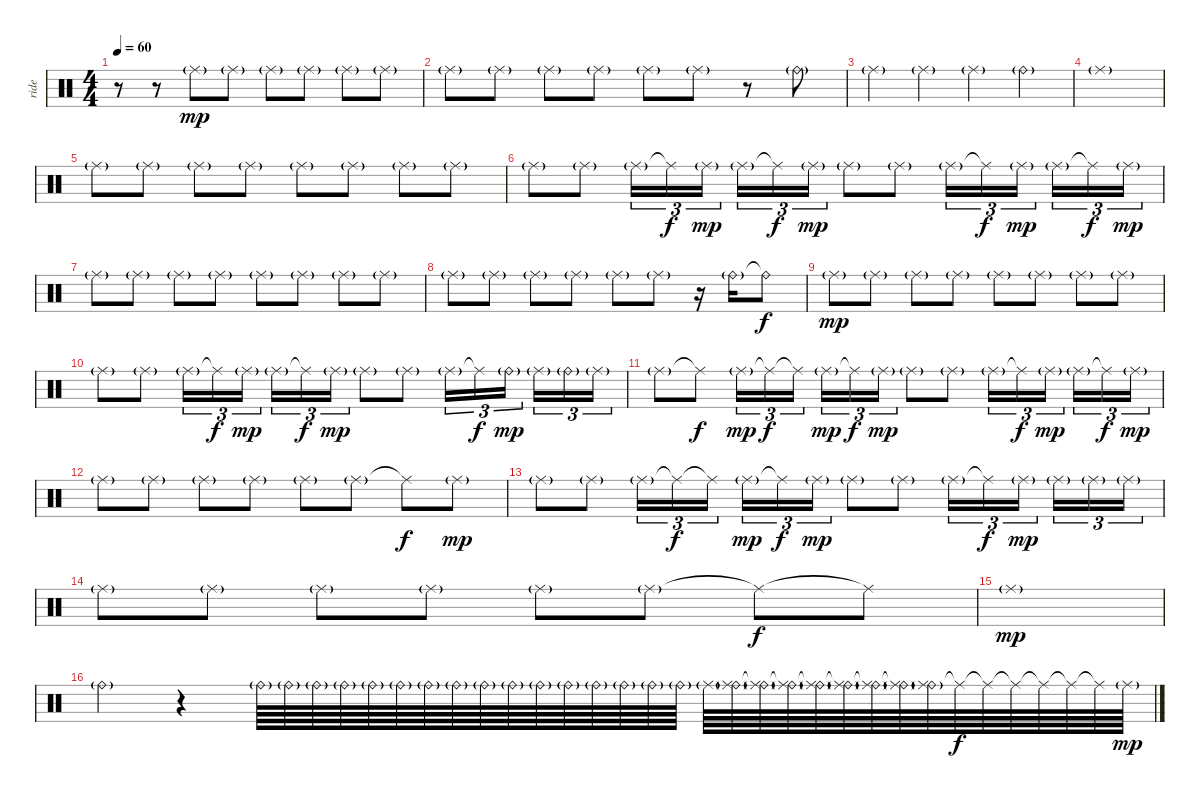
\track ("ride" "ride") {instrument percussion}
\staff {score}
\articulation defaults
\ts (4 4)
\tempo 60
\clef neutral
\ks c
r.8{dy f} r.8 "Ride (middle)"{g}.8{dy mp} "Ride (middle)"{g}.8 "Ride (middle)"{g}.8 "Ride (middle)"{g}.8 "Ride (middle)"{g}.8 "Ride (middle)"{g}.8 |
"Ride (middle)"{g}.8 "Ride (middle)"{g}.8 "Ride (middle)"{g}.8 "Ride (middle)"{g}.8 "Ride (middle)"{g}.8 "Ride (middle)"{g}.8 r.8 "Ride (bell)"{g}.8 |
"Ride (middle)"{g}.4 "Ride (middle)"{g}.4 "Ride (middle)"{g}.4 "Ride (bell)"{g}.4 |
"Ride (middle)"{g}.1 |
"Ride (middle)"{g}.8 "Ride (middle)"{g}.8 "Ride (middle)"{g}.8 "Ride (middle)"{g}.8 "Ride (middle)"{g}.8 "Ride (middle)"{g}.8 "Ride (middle)"{g}.8 "Ride (middle)"{g}.8 |
"Ride (middle)"{g}.8 "Ride (middle)"{g}.8 "Ride (middle)"{g}.16{tu (3 2)} "Ride (middle)"{t}.16{tu (3 2) dy f} "Ride (middle)"{g}.16{tu (3 2) dy mp} "Ride (middle)"{g}.16{tu (3 2)} "Ride (middle)"{t}.16{tu (3 2) dy f} "Ride (middle)"{g}.16{tu (3 2) dy mp} "Ride (middle)"{g}.8 "Ride (middle)"{g}.8 "Ride (middle)"{g}.16{tu (3 2)} "Ride (middle)"{t}.16{tu (3 2) dy f} "Ride (middle)"{g}.16{tu (3 2) dy mp} "Ride (middle)"{g}.16{tu (3 2)} "Ride (middle)"{t}.16{tu (3 2) dy f} "Ride (middle)"{g}.16{tu (3 2) dy mp} |
"Ride (middle)"{g}.8 "Ride (middle)"{g}.8 "Ride (middle)"{g}.8 "Ride (middle)"{g}.8 "Ride (middle)"{g}.8 "Ride (middle)"{g}.8 "Ride (middle)"{g}.8 "Ride (middle)"{g}.8 |
"Ride (middle)"{g}.8 "Ride (middle)"{g}.8 "Ride (middle)"{g}.8 "Ride (middle)"{g}.8 "Ride (middle)"{g}.8 "Ride (middle)"{g}.8 r.16 "Ride (bell)"{g}.16 "Ride (bell)"{t}.8{dy f} |
"Ride (middle)"{g}.8{dy mp} "Ride (middle)"{g}.8 "Ride (middle)"{g}.8 "Ride (middle)"{g}.8 "Ride (middle)"{g}.8 "Ride (middle)"{g}.8 "Ride (middle)"{g}.8 "Ride (middle)"{g}.8 |
"Ride (middle)"{g}.8 "Ride (middle)"{g}.8 "Ride (middle)"{g}.16{tu (3 2)} "Ride (middle)"{t}.16{tu (3 2) dy f} "Ride (middle)"{g}.16{tu (3 2) dy mp} "Ride (middle)"{g}.16{tu (3 2)} "Ride (middle)"{t}.16{tu (3 2) dy f} "Ride (middle)"{g}.16{tu (3 2) dy mp} "Ride (middle)"{g}.8 "Ride (middle)"{g}.8 "Ride (middle)"{g}.16{tu (3 2)} "Ride (middle)"{t}.16{tu (3 2) dy f} "Ride (bell)"{g}.16{tu (3 2) dy mp} "Ride (middle)"{g}.16{tu (3 2)} "Ride (bell)"{g}.16{tu (3 2)} "Ride (middle)"{g}.16{tu (3 2)} |
"Ride (middle)"{g}.8 "Ride (middle)"{t}.8{dy f} "Ride (middle)"{g}.16{tu (3 2) dy mp} "Ride (middle)"{t}.16{tu (3 2) dy f} "Ride (middle)"{t}.16{tu (3 2)} "Ride (middle)"{g}.16{tu (3 2) dy mp} "Ride (middle)"{t}.16{tu (3 2) dy f} "Ride (middle)"{g}.16{tu (3 2) dy mp} "Ride (middle)"{g}.8 "Ride (middle)"{g}.8 "Ride (middle)"{g}.16{tu (3 2)} "Ride (middle)"{t}.16{tu (3 2) dy f} "Ride (middle)"{g}.16{tu (3 2) dy mp} "Ride (middle)"{g}.16{tu (3 2)} "Ride (middle)"{t}.16{tu (3 2) dy f} "Ride (middle)"{g}.16{tu (3 2) dy mp} |
"Ride (middle)"{g}.8 "Ride (middle)"{g}.8 "Ride (middle)"{g}.8 "Ride (middle)"{g}.8 "Ride (middle)"{g}.8 "Ride (middle)"{g}.8 "Ride (middle)"{t}.8{dy f} "Ride (middle)"{g}.8{dy mp} |
"Ride (middle)"{g}.8 "Ride (middle)"{g}.8 "Ride (middle)"{g}.16{tu (3 2)} "Ride (middle)"{t}.16{tu (3 2) dy f} "Ride (middle)"{t}.16{tu (3 2)} "Ride (middle)"{g}.16{tu (3 2) dy mp} "Ride (middle)"{t}.16{tu (3 2) dy f} "Ride (middle)"{g}.16{tu (3 2) dy mp} "Ride (middle)"{g}.8 "Ride (middle)"{g}.8 "Ride (middle)"{g}.16{tu (3 2)} "Ride (middle)"{t}.16{tu (3 2) dy f} "Ride (middle)"{g}.16{tu (3 2) dy mp} "Ride (middle)"{g}.16{tu (3 2)} "Ride (middle)"{g}.16{tu (3 2)} "Ride (middle)"{g}.16{tu (3 2)} |
"Ride (middle)"{g}.8 "Ride (middle)"{g}.8 "Ride (middle)"{g}.8 "Ride (middle)"{g}.8 "Ride (middle)"{g}.8 "Ride (middle)"{g}.8 "Ride (middle)"{t}.8{dy f} "Ride (middle)"{t}.8 |
"Ride (middle)"{g}.1{dy mp} |
"Ride (bell)"{g}.4 r.4 "Ride (bell)"{g}.64 "Ride (bell)"{g}.64 "Ride (bell)"{g}.64 "Ride (bell)"{g}.64 "Ride (bell)"{g}.64 "Ride (bell)"{g}.64 "Ride (bell)"{g}.64 "Ride (bell)"{g}.64 "Ride (bell)"{g}.64 "Ride (bell)"{g}.64 "Ride (bell)"{g}.64 "Ride (bell)"{g}.64 "Ride (bell)"{g}.64 "Ride (bell)"{g}.64 "Ride (bell)"{g}.64 "Ride (bell)"{g}.64 "Ride (middle)"{g}.64 ("Ride (bell)"{g} "Ride (middle)").64 ("Ride (bell)"{g} "Ride (middle)"{t}).64 ("Ride (bell)"{g} "Ride (middle)"{t}).64 ("Ride (bell)"{g} "Ride (middle)"{t}).64 ("Ride (bell)"{g} "Ride (middle)"{t}).64 ("Ride (bell)"{g} "Ride (middle)"{t}).64 ("Ride (bell)"{g} "Ride (middle)"{t}).64 ("Ride (bell)"{g} "Ride (middle)"{g}).64 "Ride (middle)"{t}.64{dy f} "Ride (middle)"{t}.64 "Ride (middle)"{t}.64 "Ride (middle)"{t}.64 "Ride (middle)"{t}.64 "Ride (middle)"{t}.64 "Ride (middle)"{g}.64{dy mp}
